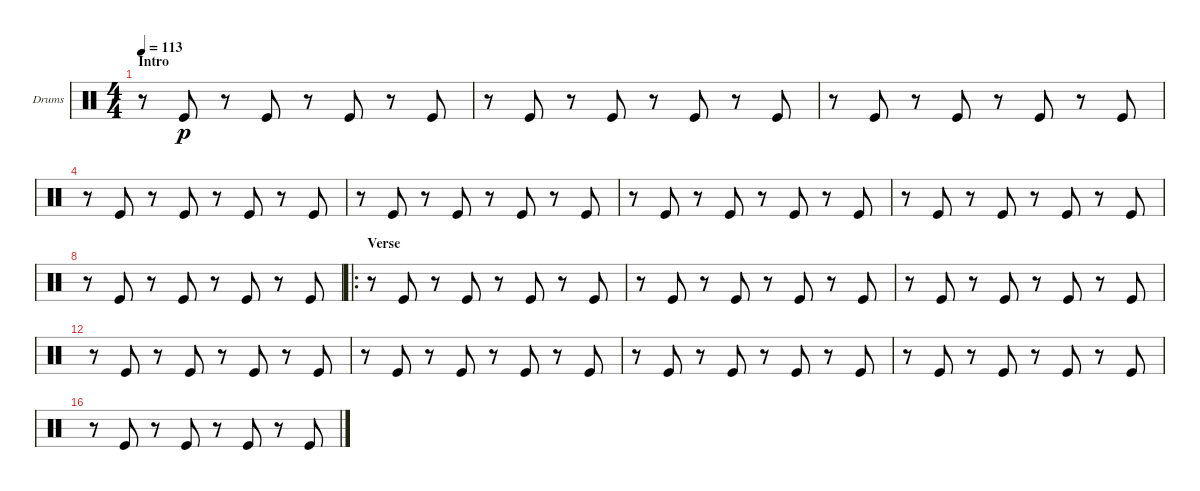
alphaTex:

\bracketExtendMode nobrackets
\firstSystemTrackNameOrientation horizontal
\otherSystemsTrackNameOrientation horizontal
\defaultBarNumberDisplay FirstOfSystem
\track ("Drumkit" "Drums") {solo instrument percussion}
\staff {score}
\articulation defaults
\ts (4 4)
\section ("" "Intro")
\scale
0.342812
\tempo 113
\accidentals auto
\clef neutral
\ottava regular
\simile none
\scale
0.29927
\ks c
r.8{dy p} "Kick (hit)".8 r.8 "Kick (hit)".8 r.8 "Kick (hit)".8 r.8 "Kick (hit)".8 |
\scale
0.195893
\scale
0.233577 r.8 "Kick (hit)".8 r.8 "Kick (hit)".8 r.8 "Kick (hit)".8 r.8 "Kick (hit)".8 |
\scale
0.265403
\scale
0.233577 r.8 "Kick (hit)".8 r.8 "Kick (hit)".8 r.8 "Kick (hit)".8 r.8 "Kick (hit)".8 |
\scale
0.195893
\scale
0.233577 r.8 "Kick (hit)".8 r.8 "Kick (hit)".8 r.8 "Kick (hit)".8 r.8 "Kick (hit)".8 |
\scale
0.287671
\scale
0.25 r.8 "Kick (hit)".8 r.8 "Kick (hit)".8 r.8 "Kick (hit)".8 r.8 "Kick (hit)".8 |
\scale
0.212329
\scale
0.25 r.8 "Kick (hit)".8 r.8 "Kick (hit)".8 r.8 "Kick (hit)".8 r.8 "Kick (hit)".8 |
\scale
0.287671
\scale
0.25 r.8 "Kick (hit)".8 r.8 "Kick (hit)".8 r.8 "Kick (hit)".8 r.8 "Kick (hit)".8 |
\scale
0.212329
\scale
0.25 r.8 "Kick (hit)".8 r.8 "Kick (hit)".8 r.8 "Kick (hit)".8 r.8 "Kick (hit)".8 |
\ro
\section ("" "Verse")
\scale
0.302013
\scale
0.263804 r.8 "Kick (hit)".8 r.8 "Kick (hit)".8 r.8 "Kick (hit)".8 r.8 "Kick (hit)".8 |
\scale
0.208054
\scale
0.245399 r.8 "Kick (hit)".8 r.8 "Kick (hit)".8 r.8 "Kick (hit)".8 r.8 "Kick (hit)".8 |
\scale
0.281879
\scale
0.245399 r.8 "Kick (hit)".8 r.8 "Kick (hit)".8 r.8 "Kick (hit)".8 r.8 "Kick (hit)".8 |
\scale
0.208054
\scale
0.245399 r.8 "Kick (hit)".8 r.8 "Kick (hit)".8 r.8 "Kick (hit)".8 r.8 "Kick (hit)".8 |
\scale
0.287671
\scale
0.25 r.8 "Kick (hit)".8 r.8 "Kick (hit)".8 r.8 "Kick (hit)".8 r.8 "Kick (hit)".8 |
\scale
0.212329
\scale
0.25 r.8 "Kick (hit)".8 r.8 "Kick (hit)".8 r.8 "Kick (hit)".8 r.8 "Kick (hit)".8 |
\scale
0.287671
\scale
0.25 r.8 "Kick (hit)".8 r.8 "Kick (hit)".8 r.8 "Kick (hit)".8 r.8 "Kick (hit)".8 |
\scale
0.212329
\scale
0.25 r.8 "Kick (hit)".8 r.8 "Kick (hit)".8 r.8 "Kick (hit)".8 r.8 "Kick (hit)".8
